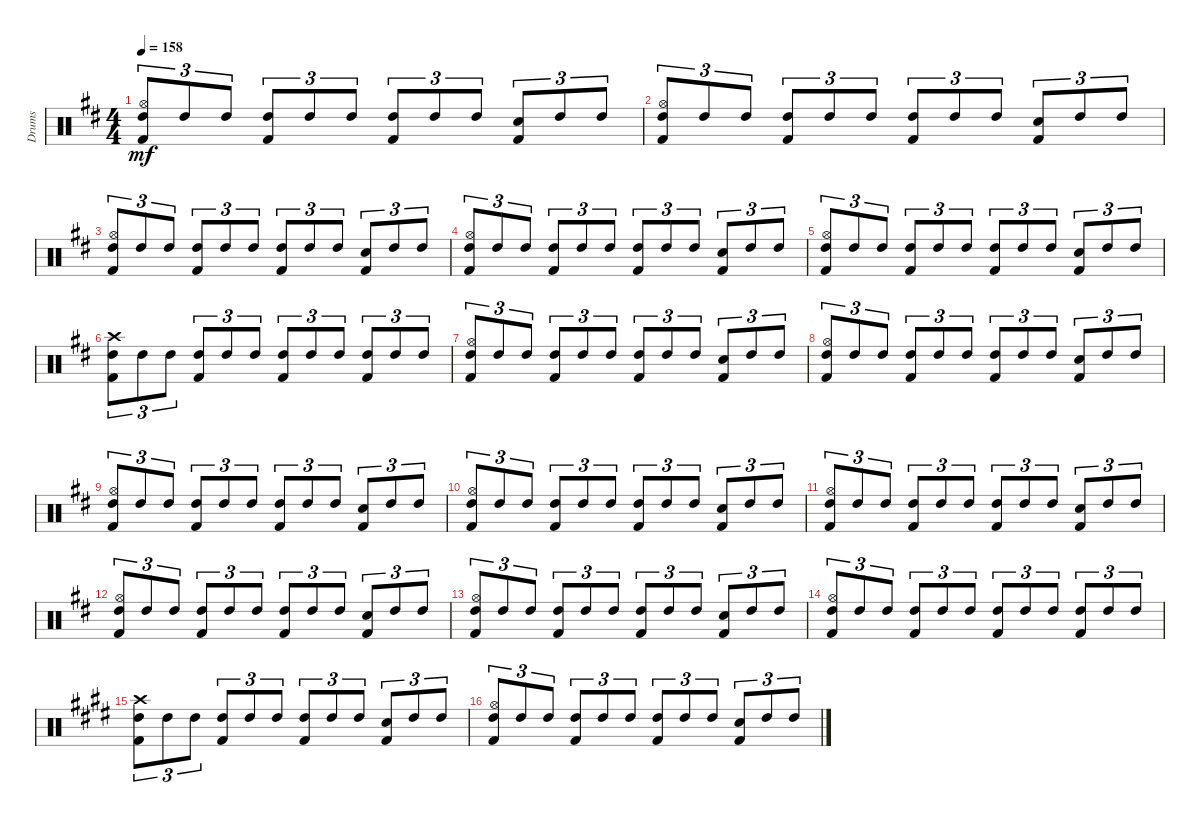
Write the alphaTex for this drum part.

\track ("Drums" "Drums") {instrument percussion}
\staff {score}
\articulation defaults
\ts (4 4)
\tempo 158
\clef neutral
\ks d
("Kick (hit) 2" "Hi-Hat (open)" "High Tom (hit)").8{tu (3 2) dy mf} "High Tom (hit)".8{tu (3 2)} "High Tom (hit)".8{tu (3 2)} ("Kick (hit) 2" "High Tom (hit)").8{tu (3 2)} "High Tom (hit)".8{tu (3 2)} "High Tom (hit)".8{tu (3 2)} ("Kick (hit) 2" "High Tom (hit)").8{tu (3 2)} "High Tom (hit)".8{tu (3 2)} "High Tom (hit)".8{tu (3 2)} ("Kick (hit) 2" "Snare (hit) 2").8{tu (3 2)} "High Tom (hit)".8{tu (3 2)} "High Tom (hit)".8{tu (3 2)} |
("Kick (hit) 2" "Hi-Hat (open)" "High Tom (hit)").8{tu (3 2)} "High Tom (hit)".8{tu (3 2)} "High Tom (hit)".8{tu (3 2)} ("Kick (hit) 2" "High Tom (hit)").8{tu (3 2)} "High Tom (hit)".8{tu (3 2)} "High Tom (hit)".8{tu (3 2)} ("Kick (hit) 2" "High Tom (hit)").8{tu (3 2)} "High Tom (hit)".8{tu (3 2)} "High Tom (hit)".8{tu (3 2)} ("Kick (hit) 2" "Snare (hit) 2").8{tu (3 2)} "High Tom (hit)".8{tu (3 2)} "High Tom (hit)".8{tu (3 2)} |
("Kick (hit) 2" "Hi-Hat (open)" "High Tom (hit)").8{tu (3 2)} "High Tom (hit)".8{tu (3 2)} "High Tom (hit)".8{tu (3 2)} ("Kick (hit) 2" "High Tom (hit)").8{tu (3 2)} "High Tom (hit)".8{tu (3 2)} "High Tom (hit)".8{tu (3 2)} ("Kick (hit) 2" "High Tom (hit)").8{tu (3 2)} "High Tom (hit)".8{tu (3 2)} "High Tom (hit)".8{tu (3 2)} ("Kick (hit) 2" "Snare (hit) 2").8{tu (3 2)} "High Tom (hit)".8{tu (3 2)} "High Tom (hit)".8{tu (3 2)} |
("Kick (hit) 2" "Hi-Hat (open)" "High Tom (hit)").8{tu (3 2)} "High Tom (hit)".8{tu (3 2)} "High Tom (hit)".8{tu (3 2)} ("Kick (hit) 2" "High Tom (hit)").8{tu (3 2)} "High Tom (hit)".8{tu (3 2)} "High Tom (hit)".8{tu (3 2)} ("Kick (hit) 2" "High Tom (hit)").8{tu (3 2)} "High Tom (hit)".8{tu (3 2)} "High Tom (hit)".8{tu (3 2)} ("Kick (hit) 2" "Snare (hit) 2").8{tu (3 2)} "High Tom (hit)".8{tu (3 2)} "High Tom (hit)".8{tu (3 2)} |
("Kick (hit) 2" "Hi-Hat (open)" "High Tom (hit)").8{tu (3 2)} "High Tom (hit)".8{tu (3 2)} "High Tom (hit)".8{tu (3 2)} ("Kick (hit) 2" "High Tom (hit)").8{tu (3 2)} "High Tom (hit)".8{tu (3 2)} "High Tom (hit)".8{tu (3 2)} ("Kick (hit) 2" "High Tom (hit)").8{tu (3 2)} "High Tom (hit)".8{tu (3 2)} "High Tom (hit)".8{tu (3 2)} ("Kick (hit) 2" "Snare (hit) 2").8{tu (3 2)} "High Tom (hit)".8{tu (3 2)} "High Tom (hit)".8{tu (3 2)} |
("Kick (hit) 2" "High Tom (hit)" "Crash high (hit)").8{tu (3 2)} "High Tom (hit)".8{tu (3 2)} "High Tom (hit)".8{tu (3 2)} ("Kick (hit) 2" "High Tom (hit)").8{tu (3 2)} "High Tom (hit)".8{tu (3 2)} "High Tom (hit)".8{tu (3 2)} ("Kick (hit) 2" "High Tom (hit)").8{tu (3 2)} "High Tom (hit)".8{tu (3 2)} "High Tom (hit)".8{tu (3 2)} ("Kick (hit) 2" "High Tom (hit)").8{tu (3 2)} "High Tom (hit)".8{tu (3 2)} "High Tom (hit)".8{tu (3 2)} |
("Kick (hit) 2" "Hi-Hat (open)" "High Tom (hit)").8{tu (3 2)} "High Tom (hit)".8{tu (3 2)} "High Tom (hit)".8{tu (3 2)} ("Kick (hit) 2" "High Tom (hit)").8{tu (3 2)} "High Tom (hit)".8{tu (3 2)} "High Tom (hit)".8{tu (3 2)} ("Kick (hit) 2" "High Tom (hit)").8{tu (3 2)} "High Tom (hit)".8{tu (3 2)} "High Tom (hit)".8{tu (3 2)} ("Kick (hit) 2" "Snare (hit) 2").8{tu (3 2)} "High Tom (hit)".8{tu (3 2)} "High Tom (hit)".8{tu (3 2)} |
("Kick (hit) 2" "Hi-Hat (open)" "High Tom (hit)").8{tu (3 2)} "High Tom (hit)".8{tu (3 2)} "High Tom (hit)".8{tu (3 2)} ("Kick (hit) 2" "High Tom (hit)").8{tu (3 2)} "High Tom (hit)".8{tu (3 2)} "High Tom (hit)".8{tu (3 2)} ("Kick (hit) 2" "High Tom (hit)").8{tu (3 2)} "High Tom (hit)".8{tu (3 2)} "High Tom (hit)".8{tu (3 2)} ("Kick (hit) 2" "Snare (hit) 2").8{tu (3 2)} "High Tom (hit)".8{tu (3 2)} "High Tom (hit)".8{tu (3 2)} |
("Kick (hit) 2" "Hi-Hat (open)" "High Tom (hit)").8{tu (3 2)} "High Tom (hit)".8{tu (3 2)} "High Tom (hit)".8{tu (3 2)} ("Kick (hit) 2" "High Tom (hit)").8{tu (3 2)} "High Tom (hit)".8{tu (3 2)} "High Tom (hit)".8{tu (3 2)} ("Kick (hit) 2" "High Tom (hit)").8{tu (3 2)} "High Tom (hit)".8{tu (3 2)} "High Tom (hit)".8{tu (3 2)} ("Kick (hit) 2" "Snare (hit) 2").8{tu (3 2)} "High Tom (hit)".8{tu (3 2)} "High Tom (hit)".8{tu (3 2)} |
("Kick (hit) 2" "Hi-Hat (open)" "High Tom (hit)").8{tu (3 2)} "High Tom (hit)".8{tu (3 2)} "High Tom (hit)".8{tu (3 2)} ("Kick (hit) 2" "High Tom (hit)").8{tu (3 2)} "High Tom (hit)".8{tu (3 2)} "High Tom (hit)".8{tu (3 2)} ("Kick (hit) 2" "High Tom (hit)").8{tu (3 2)} "High Tom (hit)".8{tu (3 2)} "High Tom (hit)".8{tu (3 2)} ("Kick (hit) 2" "Snare (hit) 2").8{tu (3 2)} "High Tom (hit)".8{tu (3 2)} "High Tom (hit)".8{tu (3 2)} |
("Kick (hit) 2" "Hi-Hat (open)" "High Tom (hit)").8{tu (3 2)} "High Tom (hit)".8{tu (3 2)} "High Tom (hit)".8{tu (3 2)} ("Kick (hit) 2" "High Tom (hit)").8{tu (3 2)} "High Tom (hit)".8{tu (3 2)} "High Tom (hit)".8{tu (3 2)} ("Kick (hit) 2" "High Tom (hit)").8{tu (3 2)} "High Tom (hit)".8{tu (3 2)} "High Tom (hit)".8{tu (3 2)} ("Kick (hit) 2" "Snare (hit) 2").8{tu (3 2)} "High Tom (hit)".8{tu (3 2)} "High Tom (hit)".8{tu (3 2)} |
("Kick (hit) 2" "Hi-Hat (open)" "High Tom (hit)").8{tu (3 2)} "High Tom (hit)".8{tu (3 2)} "High Tom (hit)".8{tu (3 2)} ("Kick (hit) 2" "High Tom (hit)").8{tu (3 2)} "High Tom (hit)".8{tu (3 2)} "High Tom (hit)".8{tu (3 2)} ("Kick (hit) 2" "High Tom (hit)").8{tu (3 2)} "High Tom (hit)".8{tu (3 2)} "High Tom (hit)".8{tu (3 2)} ("Kick (hit) 2" "Snare (hit) 2").8{tu (3 2)} "High Tom (hit)".8{tu (3 2)} "High Tom (hit)".8{tu (3 2)} |
("Kick (hit) 2" "Hi-Hat (open)" "High Tom (hit)").8{tu (3 2)} "High Tom (hit)".8{tu (3 2)} "High Tom (hit)".8{tu (3 2)} ("Kick (hit) 2" "High Tom (hit)").8{tu (3 2)} "High Tom (hit)".8{tu (3 2)} "High Tom (hit)".8{tu (3 2)} ("Kick (hit) 2" "High Tom (hit)").8{tu (3 2)} "High Tom (hit)".8{tu (3 2)} "High Tom (hit)".8{tu (3 2)} ("Kick (hit) 2" "Snare (hit) 2").8{tu (3 2)} "High Tom (hit)".8{tu (3 2)} "High Tom (hit)".8{tu (3 2)} |
("Kick (hit) 2" "Hi-Hat (open)" "High Tom (hit)").8{tu (3 2)} "High Tom (hit)".8{tu (3 2)} "High Tom (hit)".8{tu (3 2)} ("Kick (hit) 2" "High Tom (hit)").8{tu (3 2)} "High Tom (hit)".8{tu (3 2)} "High Tom (hit)".8{tu (3 2)} ("Kick (hit) 2" "High Tom (hit)").8{tu (3 2)} "High Tom (hit)".8{tu (3 2)} "High Tom (hit)".8{tu (3 2)} ("Kick (hit) 2" "High Tom (hit)").8{tu (3 2)} "High Tom (hit)".8{tu (3 2)} "High Tom (hit)".8{tu (3 2)} |
\ks e
("Kick (hit) 2" "High Tom (hit)" "Crash high (hit)").8{tu (3 2)} "High Tom (hit)".8{tu (3 2)} "High Tom (hit)".8{tu (3 2)} ("Kick (hit) 2" "High Tom (hit)").8{tu (3 2)} "High Tom (hit)".8{tu (3 2)} "High Tom (hit)".8{tu (3 2)} ("Kick (hit) 2" "High Tom (hit)").8{tu (3 2)} "High Tom (hit)".8{tu (3 2)} "High Tom (hit)".8{tu (3 2)} ("Kick (hit) 2" "Snare (hit) 2").8{tu (3 2)} "High Tom (hit)".8{tu (3 2)} "High Tom (hit)".8{tu (3 2)} |
("Kick (hit) 2" "Hi-Hat (open)" "High Tom (hit)").8{tu (3 2)} "High Tom (hit)".8{tu (3 2)} "High Tom (hit)".8{tu (3 2)} ("Kick (hit) 2" "High Tom (hit)").8{tu (3 2)} "High Tom (hit)".8{tu (3 2)} "High Tom (hit)".8{tu (3 2)} ("Kick (hit) 2" "High Tom (hit)").8{tu (3 2)} "High Tom (hit)".8{tu (3 2)} "High Tom (hit)".8{tu (3 2)} ("Kick (hit) 2" "Snare (hit) 2").8{tu (3 2)} "High Tom (hit)".8{tu (3 2)} "High Tom (hit)".8{tu (3 2)}
